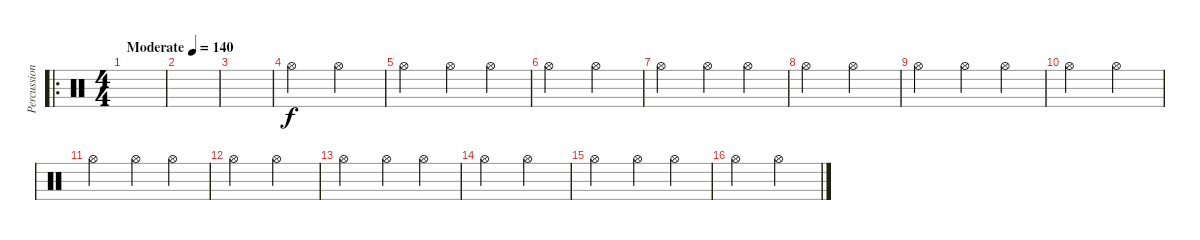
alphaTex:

\track ("Percussions" "Percussion") {instrument percussion}
\staff {score}
\articulation defaults
\ro
\ts (4 4)
\tempo (140 "Moderate")
\clef neutral
\ks c
|
|
|
"Hi-Hat (open)".2 "Hi-Hat (open)".2 |
"Hi-Hat (open)".2 "Hi-Hat (open)".4 "Hi-Hat (open)".4 |
"Hi-Hat (open)".2 "Hi-Hat (open)".2 |
"Hi-Hat (open)".2 "Hi-Hat (open)".4 "Hi-Hat (open)".4 |
"Hi-Hat (open)".2 "Hi-Hat (open)".2 |
"Hi-Hat (open)".2 "Hi-Hat (open)".4 "Hi-Hat (open)".4 |
"Hi-Hat (open)".2 "Hi-Hat (open)".2 |
"Hi-Hat (open)".2 "Hi-Hat (open)".4 "Hi-Hat (open)".4 |
"Hi-Hat (open)".2 "Hi-Hat (open)".2 |
"Hi-Hat (open)".2 "Hi-Hat (open)".4 "Hi-Hat (open)".4 |
"Hi-Hat (open)".2 "Hi-Hat (open)".2 |
"Hi-Hat (open)".2 "Hi-Hat (open)".4 "Hi-Hat (open)".4 |
"Hi-Hat (open)".2 "Hi-Hat (open)".2
